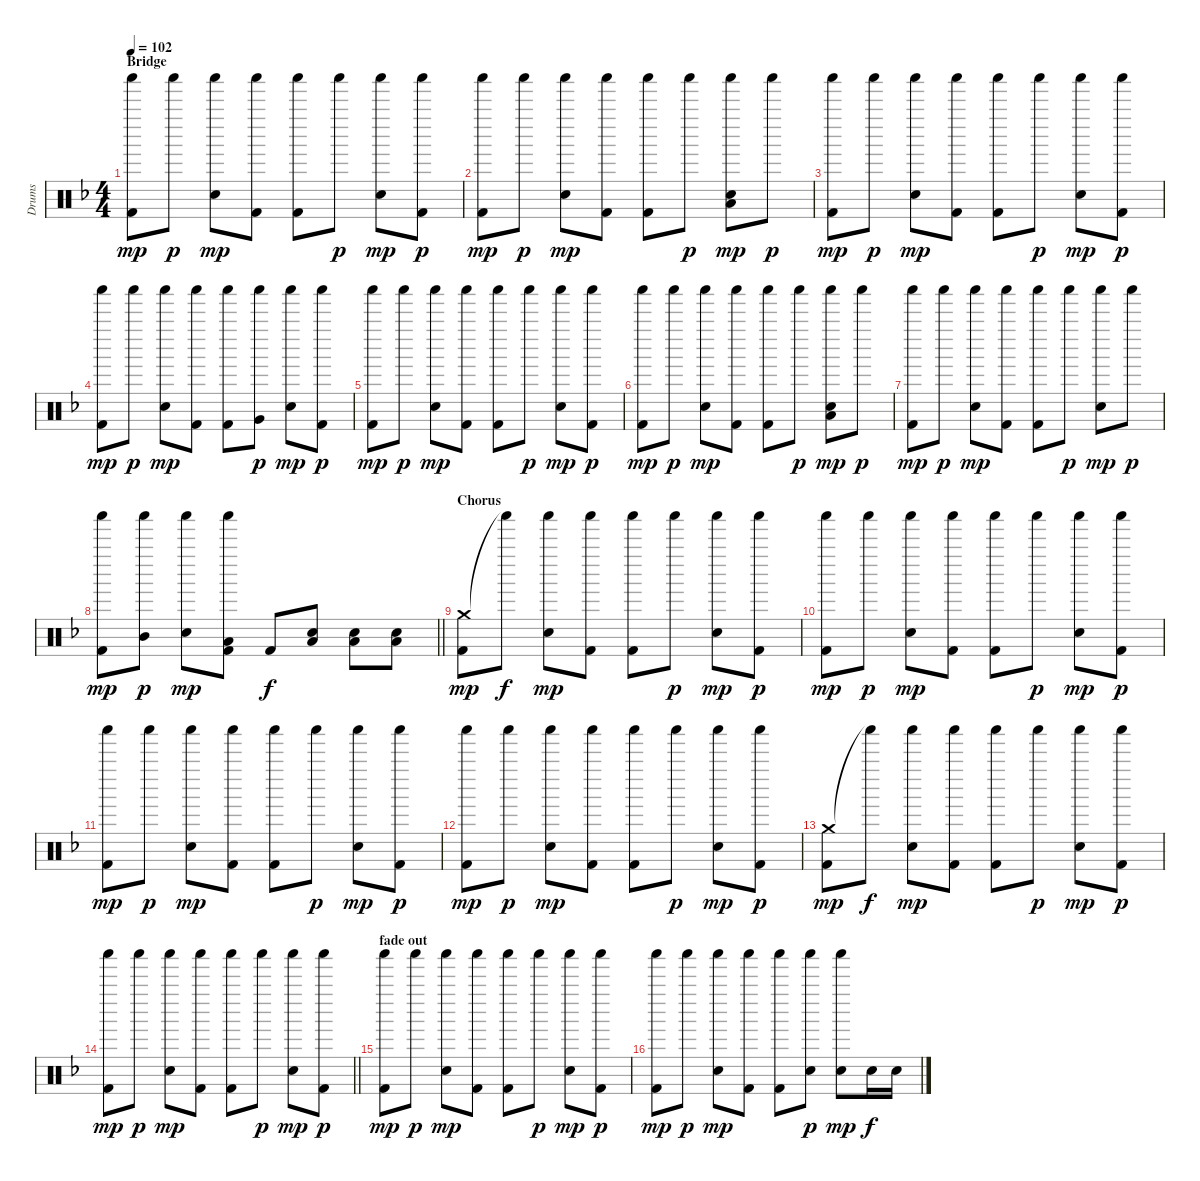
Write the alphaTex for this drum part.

\track ("Drums" "Drums") {instrument percussion}
\staff {score}
\articulation defaults
\ts (4 4)
\section ("" "Bridge")
\tempo 102
\clef neutral
\ks dminor
("Shaker (hit)" "Kick (hit) 2").8{dy mp} "Shaker (hit)".8{dy p} ("Shaker (hit)" "Snare (hit) 2").8{dy mp} ("Shaker (hit)" "Kick (hit) 2").8 ("Shaker (hit)" "Kick (hit) 2").8 "Shaker (hit)".8{dy p} ("Shaker (hit)" "Snare (hit) 2").8{dy mp} ("Shaker (hit)" "Kick (hit) 2").8{dy p} |
("Shaker (hit)" "Kick (hit) 2").8{dy mp} "Shaker (hit)".8{dy p} ("Shaker (hit)" "Snare (hit) 2").8{dy mp} ("Shaker (hit)" "Kick (hit) 2").8 ("Shaker (hit)" "Kick (hit) 2").8 "Shaker (hit)".8{dy p} ("Shaker (hit)" "Snare (hit) 2" "Low Tom (hit)").8{dy mp} "Shaker (hit)".8{dy p} |
("Shaker (hit)" "Kick (hit) 2").8{dy mp} "Shaker (hit)".8{dy p} ("Shaker (hit)" "Snare (hit) 2").8{dy mp} ("Shaker (hit)" "Kick (hit) 2").8 ("Shaker (hit)" "Kick (hit) 2").8 "Shaker (hit)".8{dy p} ("Shaker (hit)" "Snare (hit) 2").8{dy mp} ("Shaker (hit)" "Kick (hit) 2").8{dy p} |
("Shaker (hit)" "Kick (hit) 2").8{dy mp} "Shaker (hit)".8{dy p} ("Shaker (hit)" "Snare (hit) 2").8{dy mp} ("Shaker (hit)" "Kick (hit) 2").8 ("Shaker (hit)" "Kick (hit) 2").8 ("Shaker (hit)" "Very Low Tom (hit)").8{dy p} ("Shaker (hit)" "Snare (hit) 2").8{dy mp} ("Shaker (hit)" "Kick (hit) 2").8{dy p} |
("Shaker (hit)" "Kick (hit) 2").8{dy mp} "Shaker (hit)".8{dy p} ("Shaker (hit)" "Snare (hit) 2").8{dy mp} ("Shaker (hit)" "Kick (hit) 2").8 ("Shaker (hit)" "Kick (hit) 2").8 "Shaker (hit)".8{dy p} ("Shaker (hit)" "Snare (hit) 2").8{dy mp} ("Shaker (hit)" "Kick (hit) 2").8{dy p} |
("Shaker (hit)" "Kick (hit) 2").8{dy mp} "Shaker (hit)".8{dy p} ("Shaker (hit)" "Snare (hit) 2").8{dy mp} ("Shaker (hit)" "Kick (hit) 2").8 ("Shaker (hit)" "Kick (hit) 2").8 "Shaker (hit)".8{dy p} ("Shaker (hit)" "Snare (hit) 2" "Low Tom (hit)").8{dy mp} "Shaker (hit)".8{dy p} |
("Shaker (hit)" "Kick (hit) 2").8{dy mp} "Shaker (hit)".8{dy p} ("Shaker (hit)" "Snare (hit) 2").8{dy mp} ("Shaker (hit)" "Kick (hit) 2").8 ("Shaker (hit)" "Kick (hit) 2").8 "Shaker (hit)".8{dy p} ("Shaker (hit)" "Snare (hit) 2").8{dy mp} "Shaker (hit)".8{dy p} |
\barLineRight lightlight
("Shaker (hit)" "Kick (hit) 2").8{dy mp} ("Shaker (hit)" "Mid Tom (hit)").8{dy p} ("Shaker (hit)" "Snare (hit) 2").8{dy mp} ("Shaker (hit)" "Low Tom (hit)" "Kick (hit) 2").8 "Kick (hit) 2".8{dy f} ("Snare (hit) 2" "Low Tom (hit)").8 ("Snare (hit) 2" "Low Tom (hit)").8 ("Snare (hit) 2" "Low Tom (hit)").8 |
\section ("" "Chorus")
("Crash medium (hit)" "Kick (hit) 2").8{dy mp} "Shaker (hit)"{t}.8{dy f} ("Shaker (hit)" "Snare (hit) 2").8{dy mp} ("Shaker (hit)" "Kick (hit) 2").8 ("Shaker (hit)" "Kick (hit) 2").8 "Shaker (hit)".8{dy p} ("Shaker (hit)" "Snare (hit) 2").8{dy mp} ("Shaker (hit)" "Kick (hit) 2").8{dy p} |
("Shaker (hit)" "Kick (hit) 2").8{dy mp} "Shaker (hit)".8{dy p} ("Shaker (hit)" "Snare (hit) 2").8{dy mp} ("Shaker (hit)" "Kick (hit) 2").8 ("Shaker (hit)" "Kick (hit) 2").8 "Shaker (hit)".8{dy p} ("Shaker (hit)" "Snare (hit) 2").8{dy mp} ("Shaker (hit)" "Kick (hit) 2").8{dy p} |
("Shaker (hit)" "Kick (hit) 2").8{dy mp} "Shaker (hit)".8{dy p} ("Shaker (hit)" "Snare (hit) 2").8{dy mp} ("Shaker (hit)" "Kick (hit) 2").8 ("Shaker (hit)" "Kick (hit) 2").8 "Shaker (hit)".8{dy p} ("Shaker (hit)" "Snare (hit) 2").8{dy mp} ("Shaker (hit)" "Kick (hit) 2").8{dy p} |
("Shaker (hit)" "Kick (hit) 2").8{dy mp} "Shaker (hit)".8{dy p} ("Shaker (hit)" "Snare (hit) 2").8{dy mp} ("Shaker (hit)" "Kick (hit) 2").8 ("Shaker (hit)" "Kick (hit) 2").8 "Shaker (hit)".8{dy p} ("Shaker (hit)" "Snare (hit) 2").8{dy mp} ("Shaker (hit)" "Kick (hit) 2").8{dy p} |
("Crash medium (hit)" "Kick (hit) 2").8{dy mp} "Shaker (hit)"{t}.8{dy f} ("Shaker (hit)" "Snare (hit) 2").8{dy mp} ("Shaker (hit)" "Kick (hit) 2").8 ("Shaker (hit)" "Kick (hit) 2").8 "Shaker (hit)".8{dy p} ("Shaker (hit)" "Snare (hit) 2").8{dy mp} ("Shaker (hit)" "Kick (hit) 2").8{dy p} |
\barLineRight lightlight
("Shaker (hit)" "Kick (hit) 2").8{dy mp} "Shaker (hit)".8{dy p} ("Shaker (hit)" "Snare (hit) 2").8{dy mp} ("Shaker (hit)" "Kick (hit) 2").8 ("Shaker (hit)" "Kick (hit) 2").8 "Shaker (hit)".8{dy p} ("Shaker (hit)" "Snare (hit) 2").8{dy mp} ("Shaker (hit)" "Kick (hit) 2").8{dy p} |
\section ("" "fade out")
("Shaker (hit)" "Kick (hit) 2").8{dy mp} "Shaker (hit)".8{dy p} ("Shaker (hit)" "Snare (hit) 2").8{dy mp} ("Shaker (hit)" "Kick (hit) 2").8 ("Shaker (hit)" "Kick (hit) 2").8 "Shaker (hit)".8{dy p} ("Shaker (hit)" "Snare (hit) 2").8{dy mp} ("Shaker (hit)" "Kick (hit) 2").8{dy p} |
("Shaker (hit)" "Kick (hit) 2").8{dy mp} "Shaker (hit)".8{dy p} ("Shaker (hit)" "Snare (hit) 2").8{dy mp} ("Shaker (hit)" "Kick (hit) 2").8 ("Shaker (hit)" "Kick (hit) 2").8 ("Shaker (hit)" "Snare (hit) 2").8{dy p} ("Shaker (hit)" "Snare (hit) 2").8{dy mp} "Snare (hit) 2".16{dy f} "Snare (hit) 2".16
